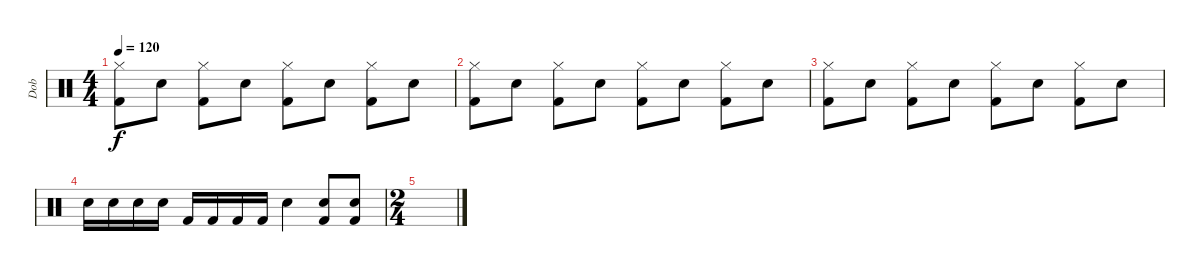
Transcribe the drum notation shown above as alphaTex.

\track ("Dob" "Dob") {instrument percussion}
\staff {score}
\articulation defaults
\ts (4 4)
\tempo 120
\clef neutral
\ks c
("Kick (hit) 2" "Hi-Hat (closed)").8{dy f} "Snare (hit) 2".8 ("Kick (hit) 2" "Hi-Hat (closed)").8 "Snare (hit) 2".8 ("Kick (hit) 2" "Hi-Hat (closed)").8 "Snare (hit) 2".8 ("Kick (hit) 2" "Hi-Hat (closed)").8 "Snare (hit) 2".8 |
("Kick (hit) 2" "Hi-Hat (closed)").8 "Snare (hit) 2".8 ("Kick (hit) 2" "Hi-Hat (closed)").8 "Snare (hit) 2".8 ("Kick (hit) 2" "Hi-Hat (closed)").8 "Snare (hit) 2".8 ("Kick (hit) 2" "Hi-Hat (closed)").8 "Snare (hit) 2".8 |
("Kick (hit) 2" "Hi-Hat (closed)").8 "Snare (hit) 2".8 ("Kick (hit) 2" "Hi-Hat (closed)").8 "Snare (hit) 2".8 ("Kick (hit) 2" "Hi-Hat (closed)").8 "Snare (hit) 2".8 ("Kick (hit) 2" "Hi-Hat (closed)").8 "Snare (hit) 2".8 |
"Snare (hit) 2".16 "Snare (hit) 2".16 "Snare (hit) 2".16 "Snare (hit) 2".16 "Kick (hit) 2".16 "Kick (hit) 2".16 "Kick (hit) 2".16 "Kick (hit) 2".16 "Snare (hit) 2".4 ("Kick (hit) 2" "Snare (hit) 2").8 ("Kick (hit) 2" "Snare (hit) 2").8 |
\ts (2 4)
